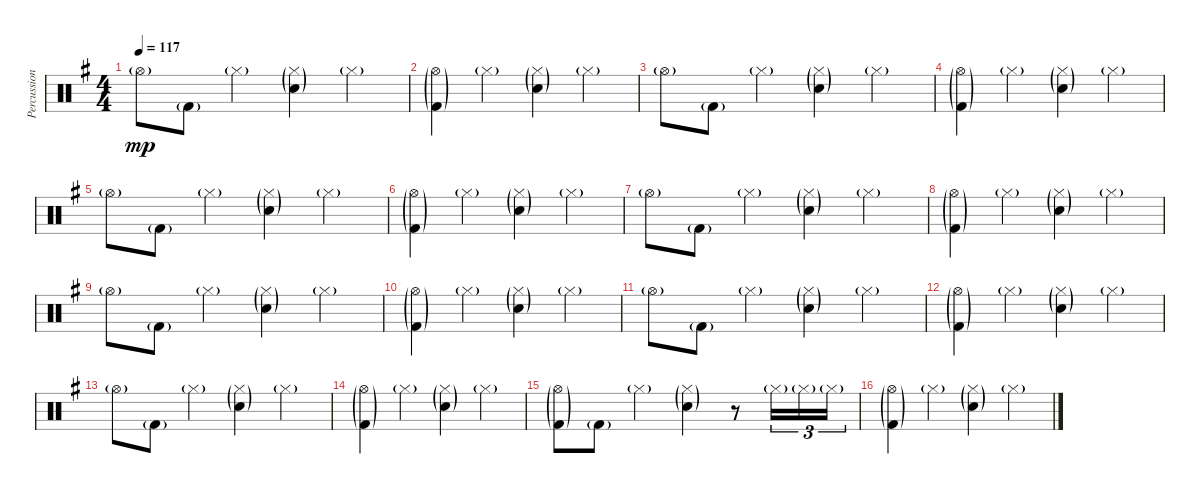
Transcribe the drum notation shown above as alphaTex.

\track ("Percussion" "Percussion") {instrument percussion}
\staff {score}
\articulation defaults
\ts (4 4)
\tempo 117
\clef neutral
\ks g "Hi-Hat (open)"{g}.8{dy mp} "Kick (hit) 2"{g}.8 "Hi-Hat (closed)"{g}.4
("Hi-Hat (closed)"{g} "Electric Snare (hit)"{g}).4 "Hi-Hat (closed)"{g}.4 |
("Hi-Hat (open)"{g} "Kick (hit) 2"{g}).4 "Hi-Hat (closed)"{g}.4 ("Hi-Hat (closed)"{g} "Electric Snare (hit)"{g}).4 "Hi-Hat (closed)"{g}.4 |
"Hi-Hat (open)"{g}.8 "Kick (hit) 2"{g}.8 "Hi-Hat (closed)"{g}.4 ("Hi-Hat (closed)"{g} "Electric Snare (hit)"{g}).4 "Hi-Hat (closed)"{g}.4 |
("Hi-Hat (open)"{g} "Kick (hit) 2"{g}).4 "Hi-Hat (closed)"{g}.4 ("Hi-Hat (closed)"{g} "Electric Snare (hit)"{g}).4 "Hi-Hat (closed)"{g}.4 |
"Hi-Hat (open)"{g}.8 "Kick (hit) 2"{g}.8 "Hi-Hat (closed)"{g}.4 ("Hi-Hat (closed)"{g} "Electric Snare (hit)"{g}).4 "Hi-Hat (closed)"{g}.4 |
("Hi-Hat (open)"{g} "Kick (hit) 2"{g}).4 "Hi-Hat (closed)"{g}.4 ("Hi-Hat (closed)"{g} "Electric Snare (hit)"{g}).4 "Hi-Hat (closed)"{g}.4 |
"Hi-Hat (open)"{g}.8 "Kick (hit) 2"{g}.8 "Hi-Hat (closed)"{g}.4 ("Hi-Hat (closed)"{g} "Electric Snare (hit)"{g}).4 "Hi-Hat (closed)"{g}.4 |
("Hi-Hat (open)"{g} "Kick (hit) 2"{g}).4 "Hi-Hat (closed)"{g}.4 ("Hi-Hat (closed)"{g} "Electric Snare (hit)"{g}).4 "Hi-Hat (closed)"{g}.4 |
"Hi-Hat (open)"{g}.8 "Kick (hit) 2"{g}.8 "Hi-Hat (closed)"{g}.4 ("Hi-Hat (closed)"{g} "Electric Snare (hit)"{g}).4 "Hi-Hat (closed)"{g}.4 |
("Hi-Hat (open)"{g} "Kick (hit) 2"{g}).4 "Hi-Hat (closed)"{g}.4 ("Hi-Hat (closed)"{g} "Electric Snare (hit)"{g}).4 "Hi-Hat (closed)"{g}.4 |
"Hi-Hat (open)"{g}.8 "Kick (hit) 2"{g}.8 "Hi-Hat (closed)"{g}.4 ("Hi-Hat (closed)"{g} "Electric Snare (hit)"{g}).4 "Hi-Hat (closed)"{g}.4 |
("Hi-Hat (open)"{g} "Kick (hit) 2"{g}).4 "Hi-Hat (closed)"{g}.4 ("Hi-Hat (closed)"{g} "Electric Snare (hit)"{g}).4 "Hi-Hat (closed)"{g}.4 |
"Hi-Hat (open)"{g}.8 "Kick (hit) 2"{g}.8 "Hi-Hat (closed)"{g}.4 ("Hi-Hat (closed)"{g} "Electric Snare (hit)"{g}).4 "Hi-Hat (closed)"{g}.4 |
("Hi-Hat (open)"{g} "Kick (hit) 2"{g}).4 "Hi-Hat (closed)"{g}.4 ("Hi-Hat (closed)"{g} "Electric Snare (hit)"{g}).4 "Hi-Hat (closed)"{g}.4 |
("Hi-Hat (open)"{g} "Kick (hit) 2"{g}).8 "Kick (hit) 2"{g}.8 "Hi-Hat (closed)"{g}.4 ("Hi-Hat (closed)"{g} "Electric Snare (hit)"{g}).4 r.8 "Hi-Hat (closed)"{g}.16{tu (3 2)} "Hi-Hat (closed)"{g}.16{tu (3 2)} "Hi-Hat (closed)"{g}.16{tu (3 2)} |
("Hi-Hat (open)"{g} "Kick (hit) 2"{g}).4 "Hi-Hat (closed)"{g}.4 ("Hi-Hat (closed)"{g} "Electric Snare (hit)"{g}).4 "Hi-Hat (closed)"{g}.4
